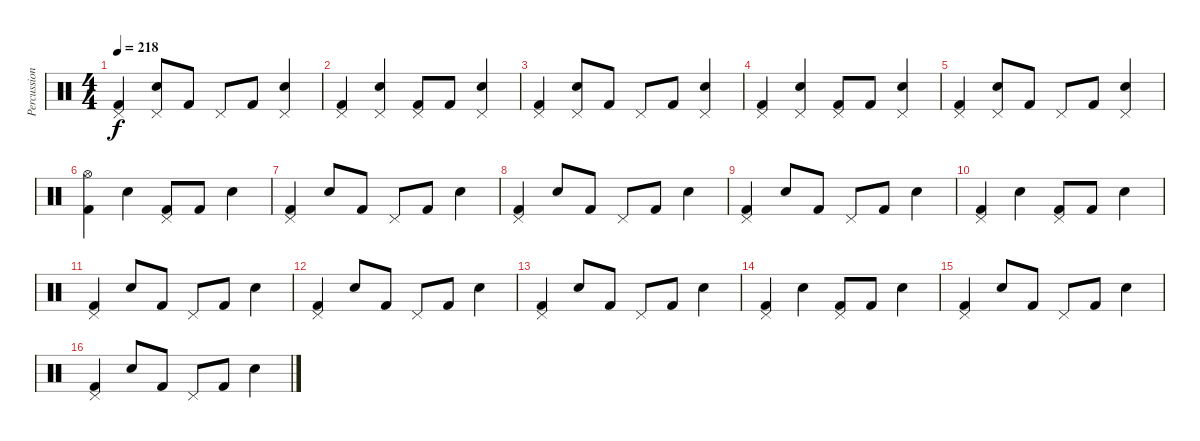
\track ("Percussion" "Percussion") {instrument percussion}
\staff {score}
\articulation defaults
\ts (4 4)
\tempo 218
\clef neutral
\ks c
("Kick (hit) 2" "Pedal Hi-Hat (hit)").4{dy f} ("Snare (hit) 2" "Pedal Hi-Hat (hit)").8 "Kick (hit) 2".8 "Pedal Hi-Hat (hit)".8 "Kick (hit) 2".8 ("Snare (hit) 2" "Pedal Hi-Hat (hit)").4 |
("Kick (hit) 2" "Pedal Hi-Hat (hit)").4 ("Snare (hit) 2" "Pedal Hi-Hat (hit)").4 ("Kick (hit) 2" "Pedal Hi-Hat (hit)").8 "Kick (hit) 2".8 ("Snare (hit) 2" "Pedal Hi-Hat (hit)").4 |
("Kick (hit) 2" "Pedal Hi-Hat (hit)").4 ("Snare (hit) 2" "Pedal Hi-Hat (hit)").8 "Kick (hit) 2".8 "Pedal Hi-Hat (hit)".8 "Kick (hit) 2".8 ("Snare (hit) 2" "Pedal Hi-Hat (hit)").4 |
("Kick (hit) 2" "Pedal Hi-Hat (hit)").4 ("Snare (hit) 2" "Pedal Hi-Hat (hit)").4 ("Kick (hit) 2" "Pedal Hi-Hat (hit)").8 "Kick (hit) 2".8 ("Snare (hit) 2" "Pedal Hi-Hat (hit)").4 |
("Kick (hit) 2" "Pedal Hi-Hat (hit)").4 ("Snare (hit) 2" "Pedal Hi-Hat (hit)").8 "Kick (hit) 2".8 "Pedal Hi-Hat (hit)".8 "Kick (hit) 2".8 ("Snare (hit) 2" "Pedal Hi-Hat (hit)").4 |
("Kick (hit) 2" "Hi-Hat (open)").4 "Snare (hit) 2".4 ("Kick (hit) 2" "Pedal Hi-Hat (hit)").8 "Kick (hit) 2".8 "Snare (hit) 2".4 |
("Kick (hit) 2" "Pedal Hi-Hat (hit)").4 "Snare (hit) 2".8 "Kick (hit) 2".8 "Pedal Hi-Hat (hit)".8 "Kick (hit) 2".8 "Snare (hit) 2".4 |
("Kick (hit) 2" "Pedal Hi-Hat (hit)").4 "Snare (hit) 2".8 "Kick (hit) 2".8 "Pedal Hi-Hat (hit)".8 "Kick (hit) 2".8 "Snare (hit) 2".4 |
("Kick (hit) 2" "Pedal Hi-Hat (hit)").4 "Snare (hit) 2".8 "Kick (hit) 2".8 "Pedal Hi-Hat (hit)".8 "Kick (hit) 2".8 "Snare (hit) 2".4 |
("Kick (hit) 2" "Pedal Hi-Hat (hit)").4 "Snare (hit) 2".4 ("Kick (hit) 2" "Pedal Hi-Hat (hit)").8 "Kick (hit) 2".8 "Snare (hit) 2".4 |
("Kick (hit) 2" "Pedal Hi-Hat (hit)").4 "Snare (hit) 2".8 "Kick (hit) 2".8 "Pedal Hi-Hat (hit)".8 "Kick (hit) 2".8 "Snare (hit) 2".4 |
("Kick (hit) 2" "Pedal Hi-Hat (hit)").4 "Snare (hit) 2".8 "Kick (hit) 2".8 "Pedal Hi-Hat (hit)".8 "Kick (hit) 2".8 "Snare (hit) 2".4 |
("Kick (hit) 2" "Pedal Hi-Hat (hit)").4 "Snare (hit) 2".8 "Kick (hit) 2".8 "Pedal Hi-Hat (hit)".8 "Kick (hit) 2".8 "Snare (hit) 2".4 |
("Kick (hit) 2" "Pedal Hi-Hat (hit)").4 "Snare (hit) 2".4 ("Kick (hit) 2" "Pedal Hi-Hat (hit)").8 "Kick (hit) 2".8 "Snare (hit) 2".4 |
("Kick (hit) 2" "Pedal Hi-Hat (hit)").4 "Snare (hit) 2".8 "Kick (hit) 2".8 "Pedal Hi-Hat (hit)".8 "Kick (hit) 2".8 "Snare (hit) 2".4 |
("Kick (hit) 2" "Pedal Hi-Hat (hit)").4 "Snare (hit) 2".8 "Kick (hit) 2".8 "Pedal Hi-Hat (hit)".8 "Kick (hit) 2".8 "Snare (hit) 2".4
